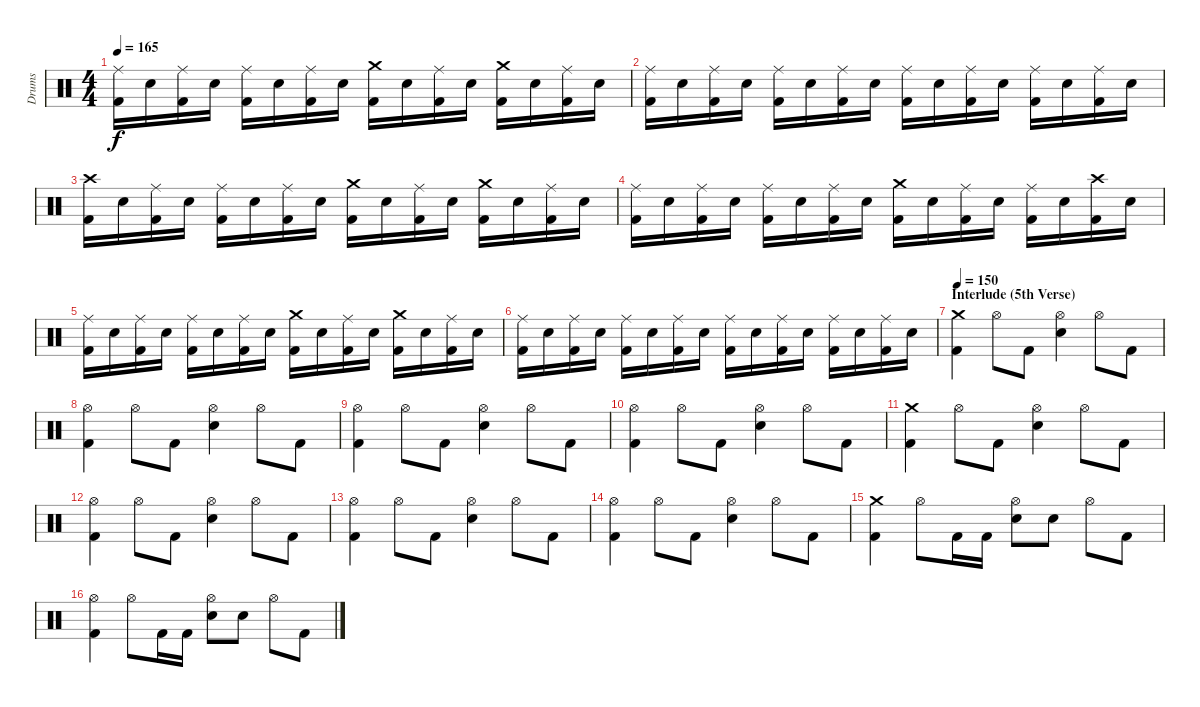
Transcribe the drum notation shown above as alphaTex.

\track ("Drums" "Drums") {instrument percussion}
\staff {score}
\articulation defaults
\ts (4 4)
\tempo 165
\clef neutral
\ks c
("Kick (hit) 2" "Ride (middle)").16{dy f} "Electric Snare (hit)".16 ("Kick (hit) 2" "Ride (middle)").16 "Electric Snare (hit)".16 ("Kick (hit) 2" "Ride (middle)").16 "Electric Snare (hit)".16 ("Kick (hit) 2" "Ride (middle)").16 "Electric Snare (hit)".16 ("Kick (hit) 2" "Crash medium (hit)").16 "Electric Snare (hit)".16 ("Kick (hit) 2" "Ride (middle)").16 "Electric Snare (hit)".16 ("Kick (hit) 2" "Crash medium (hit)").16 "Electric Snare (hit)".16 ("Kick (hit) 2" "Ride (middle)").16 "Electric Snare (hit)".16 |
("Kick (hit) 2" "Ride (middle)").16 "Electric Snare (hit)".16 ("Kick (hit) 2" "Ride (middle)").16 "Electric Snare (hit)".16 ("Kick (hit) 2" "Ride (middle)").16 "Electric Snare (hit)".16 ("Kick (hit) 2" "Ride (middle)").16 "Electric Snare (hit)".16 ("Kick (hit) 2" "Ride (middle)").16 "Electric Snare (hit)".16 ("Kick (hit) 2" "Ride (middle)").16 "Electric Snare (hit)".16 ("Kick (hit) 2" "Ride (middle)").16 "Electric Snare (hit)".16 ("Kick (hit) 2" "Ride (middle)").16 "Electric Snare (hit)".16 |
("Kick (hit) 2" "Crash high (hit)").16 "Electric Snare (hit)".16 ("Kick (hit) 2" "Ride (middle)").16 "Electric Snare (hit)".16 ("Kick (hit) 2" "Ride (middle)").16 "Electric Snare (hit)".16 ("Kick (hit) 2" "Ride (middle)").16 "Electric Snare (hit)".16 ("Kick (hit) 2" "Crash medium (hit)").16 "Electric Snare (hit)".16 ("Kick (hit) 2" "Ride (middle)").16 "Electric Snare (hit)".16 ("Kick (hit) 2" "Crash medium (hit)").16 "Electric Snare (hit)".16 ("Kick (hit) 2" "Ride (middle)").16 "Electric Snare (hit)".16 |
("Kick (hit) 2" "Ride (middle)").16 "Electric Snare (hit)".16 ("Kick (hit) 2" "Ride (middle)").16 "Electric Snare (hit)".16 ("Kick (hit) 2" "Ride (middle)").16 "Electric Snare (hit)".16 ("Kick (hit) 2" "Ride (middle)").16 "Electric Snare (hit)".16 ("Kick (hit) 2" "Crash medium (hit)").16 "Electric Snare (hit)".16 ("Kick (hit) 2" "Ride (middle)").16 "Electric Snare (hit)".16 ("Kick (hit) 2" "Ride (middle)").16 "Electric Snare (hit)".16 ("Kick (hit) 2" "Crash high (hit)").16 "Electric Snare (hit)".16 |
("Kick (hit) 2" "Ride (middle)").16 "Electric Snare (hit)".16 ("Kick (hit) 2" "Ride (middle)").16 "Electric Snare (hit)".16 ("Kick (hit) 2" "Ride (middle)").16 "Electric Snare (hit)".16 ("Kick (hit) 2" "Ride (middle)").16 "Electric Snare (hit)".16 ("Kick (hit) 2" "Crash medium (hit)").16 "Electric Snare (hit)".16 ("Kick (hit) 2" "Ride (middle)").16 "Electric Snare (hit)".16 ("Kick (hit) 2" "Crash medium (hit)").16 "Electric Snare (hit)".16 ("Kick (hit) 2" "Ride (middle)").16 "Electric Snare (hit)".16 |
("Kick (hit) 2" "Ride (middle)").16 "Electric Snare (hit)".16 ("Kick (hit) 2" "Ride (middle)").16 "Electric Snare (hit)".16 ("Kick (hit) 2" "Ride (middle)").16 "Electric Snare (hit)".16 ("Kick (hit) 2" "Ride (middle)").16 "Electric Snare (hit)".16 ("Kick (hit) 2" "Ride (middle)").16 "Electric Snare (hit)".16 ("Kick (hit) 2" "Ride (middle)").16 "Electric Snare (hit)".16 ("Kick (hit) 2" "Ride (middle)").16 "Electric Snare (hit)".16 ("Kick (hit) 2" "Ride (middle)").16 "Electric Snare (hit)".16 |
\section ("" "Interlude (5th Verse)")
\tempo 150
("Kick (hit) 2" "Crash medium (hit)").4 "Hi-Hat (open)".8 "Kick (hit) 2".8 ("Electric Snare (hit)" "Hi-Hat (open)").4 "Hi-Hat (open)".8 "Kick (hit) 2".8 |
("Kick (hit) 2" "Hi-Hat (open)").4 "Hi-Hat (open)".8 "Kick (hit) 2".8 ("Electric Snare (hit)" "Hi-Hat (open)").4 "Hi-Hat (open)".8 "Kick (hit) 2".8 |
("Kick (hit) 2" "Hi-Hat (open)").4 "Hi-Hat (open)".8 "Kick (hit) 2".8 ("Electric Snare (hit)" "Hi-Hat (open)").4 "Hi-Hat (open)".8 "Kick (hit) 2".8 |
("Kick (hit) 2" "Hi-Hat (open)").4 "Hi-Hat (open)".8 "Kick (hit) 2".8 ("Electric Snare (hit)" "Hi-Hat (open)").4 "Hi-Hat (open)".8 "Kick (hit) 2".8 |
("Kick (hit) 2" "Crash medium (hit)").4 "Hi-Hat (open)".8 "Kick (hit) 2".8 ("Electric Snare (hit)" "Hi-Hat (open)").4 "Hi-Hat (open)".8 "Kick (hit) 2".8 |
("Kick (hit) 2" "Hi-Hat (open)").4 "Hi-Hat (open)".8 "Kick (hit) 2".8 ("Electric Snare (hit)" "Hi-Hat (open)").4 "Hi-Hat (open)".8 "Kick (hit) 2".8 |
("Kick (hit) 2" "Hi-Hat (open)").4 "Hi-Hat (open)".8 "Kick (hit) 2".8 ("Electric Snare (hit)" "Hi-Hat (open)").4 "Hi-Hat (open)".8 "Kick (hit) 2".8 |
("Kick (hit) 2" "Hi-Hat (open)").4 "Hi-Hat (open)".8 "Kick (hit) 2".8 ("Electric Snare (hit)" "Hi-Hat (open)").4 "Hi-Hat (open)".8 "Kick (hit) 2".8 |
("Kick (hit) 2" "Crash medium (hit)").4 "Hi-Hat (open)".8 "Kick (hit) 2".16 "Kick (hit) 2".16 ("Electric Snare (hit)" "Hi-Hat (open)").8 "Electric Snare (hit)".8 "Hi-Hat (open)".8 "Kick (hit) 2".8 |
("Kick (hit) 2" "Hi-Hat (open)").4 "Hi-Hat (open)".8 "Kick (hit) 2".16 "Kick (hit) 2".16 ("Electric Snare (hit)" "Hi-Hat (open)").8 "Electric Snare (hit)".8 "Hi-Hat (open)".8 "Kick (hit) 2".8
